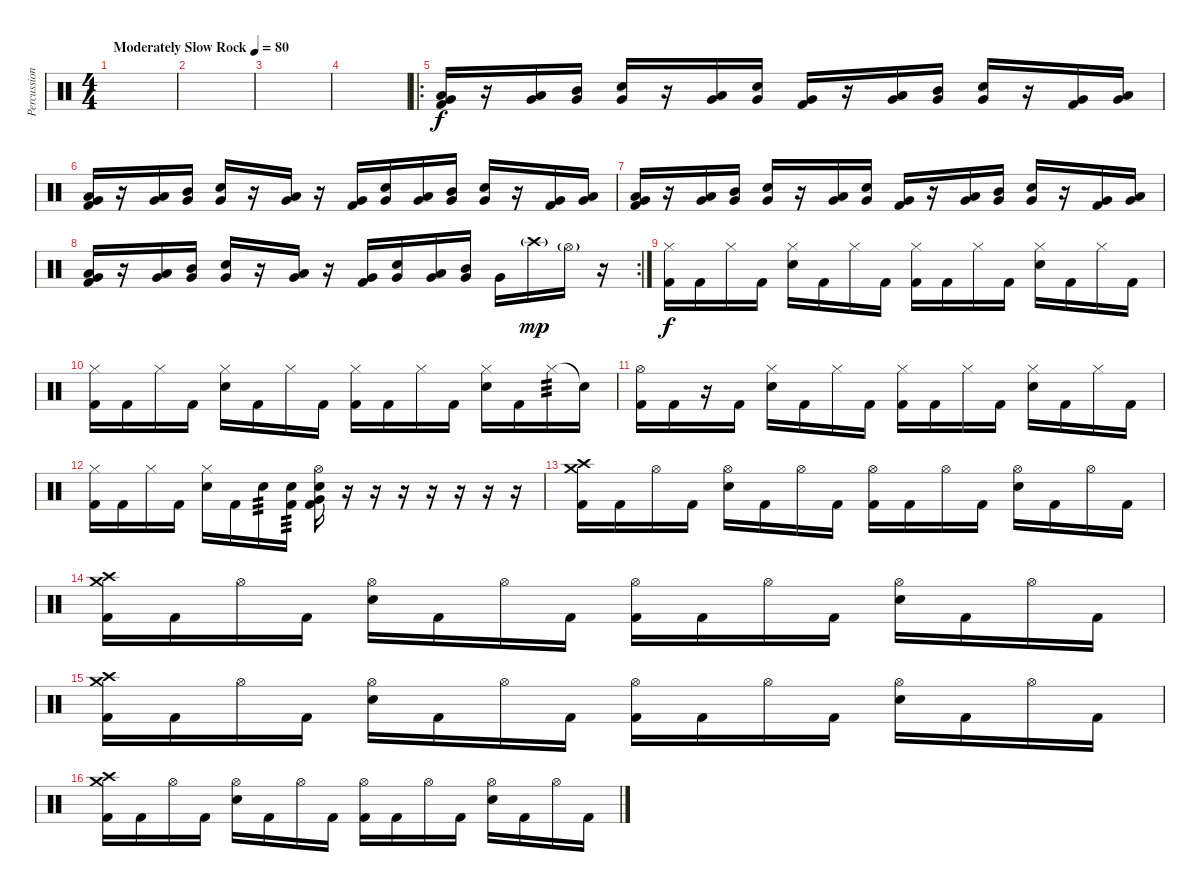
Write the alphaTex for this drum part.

\track ("Percussion" "Percussion") {instrument percussion}
\staff {score}
\articulation defaults
\ts (4 4)
\tempo (80 "Moderately Slow Rock")
\clef neutral
\ks c
|
|
|
|
\ro
("Low Floor Tom (hit)" "Very Low Tom (hit)" "Kick (hit) 2").16 r.16 ("Low Tom (hit)" "Very Low Tom (hit)").16 ("Mid Tom (hit)" "Very Low Tom (hit)").16 ("Electric Snare (hit)" "Very Low Tom (hit)").16 r.16 ("Low Floor Tom (hit)" "Very Low Tom (hit)").16 ("Electric Snare (hit)" "Very Low Tom (hit)").16 ("Very Low Tom (hit)" "Kick (hit) 2").16 r.16 ("Low Tom (hit)" "Very Low Tom (hit)").16 ("Mid Tom (hit)" "Very Low Tom (hit)").16 ("Electric Snare (hit)" "Very Low Tom (hit)").16 r.16 ("Very Low Tom (hit)" "Kick (hit) 2").16 ("Low Floor Tom (hit)" "Very Low Tom (hit)").16 |
("Low Floor Tom (hit)" "Very Low Tom (hit)" "Kick (hit) 2").16 r.16 ("Low Tom (hit)" "Very Low Tom (hit)").16 ("Mid Tom (hit)" "Very Low Tom (hit)").16 ("Electric Snare (hit)" "Very Low Tom (hit)").16 r.16 ("Low Floor Tom (hit)" "Very Low Tom (hit)").16 r.16 ("Very Low Tom (hit)" "Kick (hit) 2").16 ("Electric Snare (hit)" "Very Low Tom (hit)").16 ("Low Tom (hit)" "Very Low Tom (hit)").16 ("Mid Tom (hit)" "Very Low Tom (hit)").16 ("Electric Snare (hit)" "Very Low Tom (hit)").16 r.16 ("Very Low Tom (hit)" "Kick (hit) 2").16 ("Low Floor Tom (hit)" "Very Low Tom (hit)").16 |
("Low Floor Tom (hit)" "Very Low Tom (hit)" "Kick (hit) 2").16 r.16 ("Low Tom (hit)" "Very Low Tom (hit)").16 ("Mid Tom (hit)" "Very Low Tom (hit)").16 ("Electric Snare (hit)" "Very Low Tom (hit)").16 r.16 ("Low Floor Tom (hit)" "Very Low Tom (hit)").16 ("Electric Snare (hit)" "Very Low Tom (hit)").16 ("Very Low Tom (hit)" "Kick (hit) 2").16 r.16 ("Low Tom (hit)" "Very Low Tom (hit)").16 ("Mid Tom (hit)" "Very Low Tom (hit)").16 ("Electric Snare (hit)" "Very Low Tom (hit)").16 r.16 ("Very Low Tom (hit)" "Kick (hit) 2").16 ("Low Floor Tom (hit)" "Very Low Tom (hit)").16 |
\rc 2
("Low Floor Tom (hit)" "Very Low Tom (hit)" "Kick (hit) 2").16 r.16 ("Low Tom (hit)" "Very Low Tom (hit)").16 ("Mid Tom (hit)" "Very Low Tom (hit)").16 ("Electric Snare (hit)" "Very Low Tom (hit)").16 r.16 ("Low Floor Tom (hit)" "Very Low Tom (hit)").16 r.16 ("Very Low Tom (hit)" "Kick (hit) 2").16 ("Electric Snare (hit)" "Very Low Tom (hit)").16 ("Low Tom (hit)" "Very Low Tom (hit)").16 ("Mid Tom (hit)" "Very Low Tom (hit)").16 "Very Low Tom (hit)".16 "Crash high (hit)"{g}.16{dy mp} "Hi-Hat (open)"{g}.16 r.16 |
("Hi-Hat (closed)" "Kick (hit) 2").16{dy f} "Kick (hit) 2".16 "Hi-Hat (closed)".16 "Kick (hit) 2".16 ("Hi-Hat (closed)" "Electric Snare (hit)").16 "Kick (hit) 2".16 "Hi-Hat (closed)".16 "Kick (hit) 2".16 ("Hi-Hat (closed)" "Kick (hit) 2").16 "Kick (hit) 2".16 "Hi-Hat (closed)".16 "Kick (hit) 2".16 ("Hi-Hat (closed)" "Electric Snare (hit)").16 "Kick (hit) 2".16 "Hi-Hat (closed)".16 "Kick (hit) 2".16 |
("Hi-Hat (closed)" "Kick (hit) 2").16 "Kick (hit) 2".16 "Hi-Hat (closed)".16 "Kick (hit) 2".16 ("Hi-Hat (closed)" "Electric Snare (hit)").16 "Kick (hit) 2".16 "Hi-Hat (closed)".16 "Kick (hit) 2".16 ("Hi-Hat (closed)" "Kick (hit) 2").16 "Kick (hit) 2".16 "Hi-Hat (closed)".16 "Kick (hit) 2".16 ("Hi-Hat (closed)" "Electric Snare (hit)").16 "Kick (hit) 2".16 "Hi-Hat (closed)".16{tp 3} "Snare (hit)"{t}.16 |
("Hi-Hat (open)" "Kick (hit) 2").16 "Kick (hit) 2".16 r.16 "Kick (hit) 2".16 ("Hi-Hat (closed)" "Electric Snare (hit)").16 "Kick (hit) 2".16 "Hi-Hat (closed)".16 "Kick (hit) 2".16 ("Hi-Hat (closed)" "Kick (hit) 2").16 "Kick (hit) 2".16 "Hi-Hat (closed)".16 "Kick (hit) 2".16 ("Hi-Hat (closed)" "Electric Snare (hit)").16 "Kick (hit) 2".16 "Hi-Hat (closed)".16 "Kick (hit) 2".16 |
("Hi-Hat (closed)" "Kick (hit) 2").16 "Kick (hit) 2".16 "Hi-Hat (closed)".16 "Kick (hit) 2".16 ("Hi-Hat (closed)" "Electric Snare (hit)").16 "Kick (hit) 2".16 "Electric Snare (hit)".16{tp 3} ("Electric Snare (hit)" "Kick (hit) 2").16{tp 3} ("Hi-Hat (open)" "Electric Snare (hit)" "Very Low Tom (hit)" "Kick (hit) 2").16 r.16 r.16 r.16 r.16 r.16 r.16 r.16 |
("Crash medium (hit)" "Crash high (hit)" "Kick (hit) 2").16 "Kick (hit) 2".16 "Hi-Hat (open)".16 "Kick (hit) 2".16 ("Hi-Hat (open)" "Electric Snare (hit)").16 "Kick (hit) 2".16 "Hi-Hat (open)".16 "Kick (hit) 2".16 ("Hi-Hat (open)" "Kick (hit) 2").16 "Kick (hit) 2".16 "Hi-Hat (open)".16 "Kick (hit) 2".16 ("Hi-Hat (open)" "Electric Snare (hit)").16 "Kick (hit) 2".16 "Hi-Hat (open)".16 "Kick (hit) 2".16 |
("Crash medium (hit)" "Crash high (hit)" "Kick (hit) 2").16 "Kick (hit) 2".16 "Hi-Hat (open)".16 "Kick (hit) 2".16 ("Hi-Hat (open)" "Electric Snare (hit)").16 "Kick (hit) 2".16 "Hi-Hat (open)".16 "Kick (hit) 2".16 ("Hi-Hat (open)" "Kick (hit) 2").16 "Kick (hit) 2".16 "Hi-Hat (open)".16 "Kick (hit) 2".16 ("Hi-Hat (open)" "Electric Snare (hit)").16 "Kick (hit) 2".16 "Hi-Hat (open)".16 "Kick (hit) 2".16 |
("Crash medium (hit)" "Crash high (hit)" "Kick (hit) 2").16 "Kick (hit) 2".16 "Hi-Hat (open)".16 "Kick (hit) 2".16 ("Hi-Hat (open)" "Electric Snare (hit)").16 "Kick (hit) 2".16 "Hi-Hat (open)".16 "Kick (hit) 2".16 ("Hi-Hat (open)" "Kick (hit) 2").16 "Kick (hit) 2".16 "Hi-Hat (open)".16 "Kick (hit) 2".16 ("Hi-Hat (open)" "Electric Snare (hit)").16 "Kick (hit) 2".16 "Hi-Hat (open)".16 "Kick (hit) 2".16 |
("Crash medium (hit)" "Crash high (hit)" "Kick (hit) 2").16 "Kick (hit) 2".16 "Hi-Hat (open)".16 "Kick (hit) 2".16 ("Hi-Hat (open)" "Electric Snare (hit)").16 "Kick (hit) 2".16 "Hi-Hat (open)".16 "Kick (hit) 2".16 ("Hi-Hat (open)" "Kick (hit) 2").16 "Kick (hit) 2".16 "Hi-Hat (open)".16 "Kick (hit) 2".16 ("Hi-Hat (open)" "Electric Snare (hit)").16 "Kick (hit) 2".16 "Hi-Hat (open)".16 "Kick (hit) 2".16
